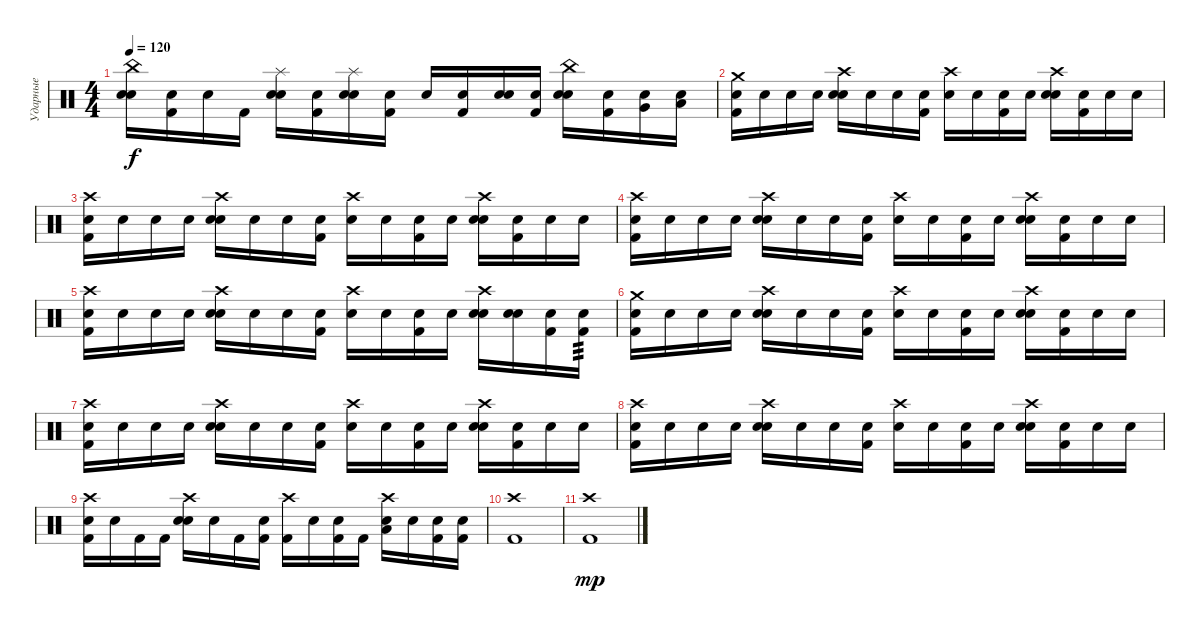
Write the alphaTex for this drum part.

\track ("Ударные" "Ударные") {instrument percussion}
\staff {score}
\articulation defaults
\ts (4 4)
\tempo 120
\clef neutral
\ks c
("China (hit)" "Snare (hit) 2" "Snare (hit)").16{dy f} ("Kick (hit) 2" "Snare (hit)").16 "Snare (hit)".16 "Kick (hit) 2".16 ("Splash (hit)" "Snare (hit) 2" "Snare (hit)").16 ("Kick (hit) 2" "Snare (hit)").16 ("Splash (hit)" "Snare (hit) 2" "Snare (hit)").16 ("Kick (hit) 2" "Snare (hit)").16 "Snare (hit)".16 ("Kick (hit) 2" "Snare (hit)").16 ("Snare (hit) 2" "Snare (hit)").16 ("Kick (hit) 2" "Snare (hit)").16 ("China (hit)" "Snare (hit) 2" "Snare (hit)").16 ("Kick (hit) 2" "Snare (hit)").16 ("Very Low Tom (hit)" "Snare (hit)").16 ("Low Floor Tom (hit)" "Snare (hit)").16 |
("Crash medium (hit)" "Kick (hit) 2" "Snare (hit)").16 "Snare (hit)".16 "Snare (hit)".16 "Snare (hit)".16 ("Crash high (hit)" "Snare (hit) 2" "Snare (hit)").16 "Snare (hit)".16 "Snare (hit)".16 ("Kick (hit) 2" "Snare (hit)").16 ("Crash high (hit)" "Snare (hit)").16 "Snare (hit)".16 ("Kick (hit) 2" "Snare (hit)").16 "Snare (hit)".16 ("Crash high (hit)" "Snare (hit) 2" "Snare (hit)").16 ("Kick (hit) 2" "Snare (hit)").16 "Snare (hit)".16 "Snare (hit)".16 |
("Crash high (hit)" "Kick (hit) 2" "Snare (hit)").16 "Snare (hit)".16 "Snare (hit)".16 "Snare (hit)".16 ("Crash high (hit)" "Snare (hit) 2" "Snare (hit)").16 "Snare (hit)".16 "Snare (hit)".16 ("Kick (hit) 2" "Snare (hit)").16 ("Crash high (hit)" "Snare (hit)").16 "Snare (hit)".16 ("Kick (hit) 2" "Snare (hit)").16 "Snare (hit)".16 ("Crash high (hit)" "Snare (hit) 2" "Snare (hit)").16 ("Kick (hit) 2" "Snare (hit)").16 "Snare (hit)".16 "Snare (hit)".16 |
("Crash high (hit)" "Kick (hit) 2" "Snare (hit)").16 "Snare (hit)".16 "Snare (hit)".16 "Snare (hit)".16 ("Crash high (hit)" "Snare (hit) 2" "Snare (hit)").16 "Snare (hit)".16 "Snare (hit)".16 ("Kick (hit) 2" "Snare (hit)").16 ("Crash high (hit)" "Snare (hit)").16 "Snare (hit)".16 ("Kick (hit) 2" "Snare (hit)").16 "Snare (hit)".16 ("Crash high (hit)" "Snare (hit) 2" "Snare (hit)").16 ("Kick (hit) 2" "Snare (hit)").16 "Snare (hit)".16 "Snare (hit)".16 |
("Crash high (hit)" "Kick (hit) 2" "Snare (hit)").16 "Snare (hit)".16 "Snare (hit)".16 "Snare (hit)".16 ("Crash high (hit)" "Snare (hit) 2" "Snare (hit)").16 "Snare (hit)".16 "Snare (hit)".16 ("Kick (hit) 2" "Snare (hit)").16 ("Crash high (hit)" "Snare (hit)").16 "Snare (hit)".16 ("Kick (hit) 2" "Snare (hit)").16 "Snare (hit)".16 ("Crash high (hit)" "Snare (hit) 2" "Snare (hit)").16 ("Snare (hit) 2" "Snare (hit)").16 ("Kick (hit) 2" "Snare (hit)").16 ("Kick (hit) 2" "Snare (hit)").16{tp 3} |
("Crash medium (hit)" "Kick (hit) 2" "Snare (hit)").16 "Snare (hit)".16 "Snare (hit)".16 "Snare (hit)".16 ("Crash high (hit)" "Snare (hit) 2" "Snare (hit)").16 "Snare (hit)".16 "Snare (hit)".16 ("Kick (hit) 2" "Snare (hit)").16 ("Crash high (hit)" "Snare (hit)").16 "Snare (hit)".16 ("Kick (hit) 2" "Snare (hit)").16 "Snare (hit)".16 ("Crash high (hit)" "Snare (hit) 2" "Snare (hit)").16 ("Kick (hit) 2" "Snare (hit)").16 "Snare (hit)".16 "Snare (hit)".16 |
("Crash high (hit)" "Kick (hit) 2" "Snare (hit)").16 "Snare (hit)".16 "Snare (hit)".16 "Snare (hit)".16 ("Crash high (hit)" "Snare (hit) 2" "Snare (hit)").16 "Snare (hit)".16 "Snare (hit)".16 ("Kick (hit) 2" "Snare (hit)").16 ("Crash high (hit)" "Snare (hit)").16 "Snare (hit)".16 ("Kick (hit) 2" "Snare (hit)").16 "Snare (hit)".16 ("Crash high (hit)" "Snare (hit) 2" "Snare (hit)").16 ("Kick (hit) 2" "Snare (hit)").16 "Snare (hit)".16 "Snare (hit)".16 |
("Crash high (hit)" "Kick (hit) 2" "Snare (hit)").16 "Snare (hit)".16 "Snare (hit)".16 "Snare (hit)".16 ("Crash high (hit)" "Snare (hit) 2" "Snare (hit)").16 "Snare (hit)".16 "Snare (hit)".16 ("Kick (hit) 2" "Snare (hit)").16 ("Crash high (hit)" "Snare (hit)").16 "Snare (hit)".16 ("Kick (hit) 2" "Snare (hit)").16 "Snare (hit)".16 ("Crash high (hit)" "Snare (hit) 2" "Snare (hit)").16 ("Kick (hit) 2" "Snare (hit)").16 "Snare (hit)".16 "Snare (hit)".16 |
("Crash high (hit)" "Kick (hit) 2" "Snare (hit)").16 "Snare (hit)".16 "Kick (hit) 2".16 "Kick (hit) 2".16 ("Crash high (hit)" "Snare (hit) 2" "Snare (hit)").16 "Snare (hit)".16 "Kick (hit) 2".16 ("Kick (hit) 2" "Snare (hit)").16 ("Crash high (hit)" "Kick (hit) 2").16 "Snare (hit)".16 ("Kick (hit) 2" "Snare (hit)").16 "Kick (hit) 2".16 ("Crash high (hit)" "Low Floor Tom (hit)" "Snare (hit)").16 "Snare (hit)".16 ("Kick (hit) 2" "Snare (hit)").16 ("Kick (hit) 2" "Snare (hit)").16 |
("Crash high (hit)" "Kick (hit) 2").1 |
("Crash high (hit)" "Kick (hit) 2").1{dy mp}
